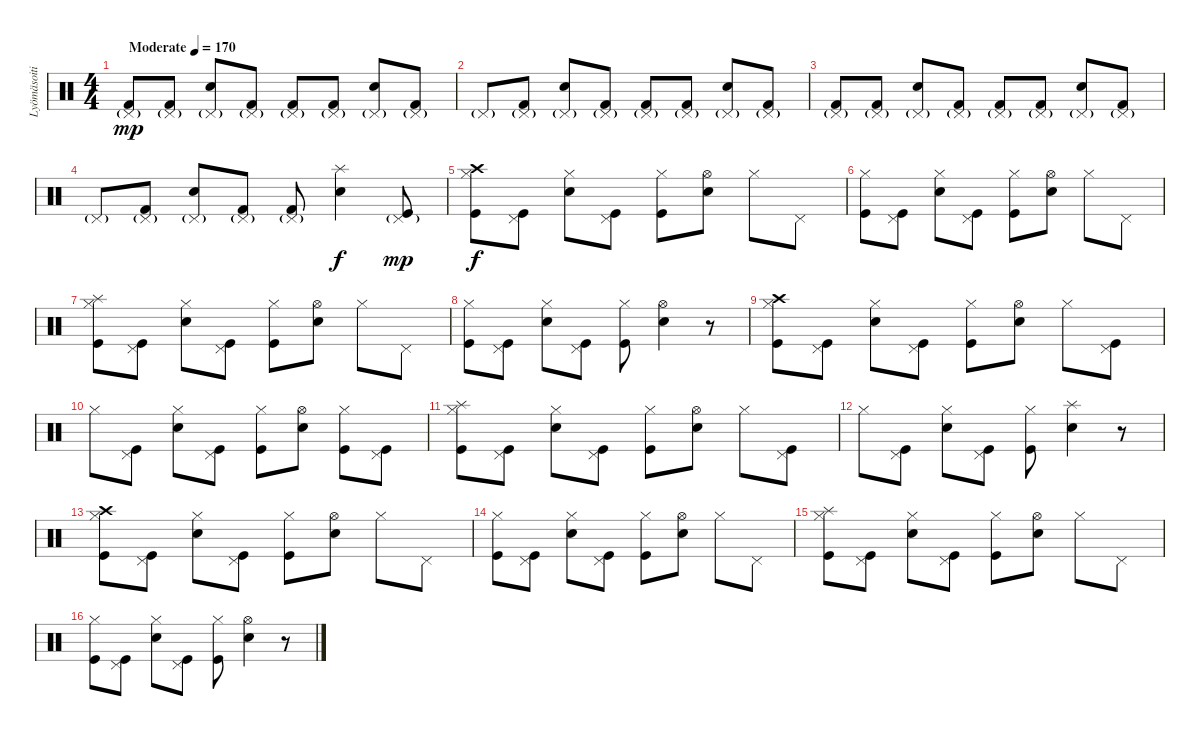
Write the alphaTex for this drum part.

\track ("Lyömäsoitin" "Lyömäsoiti") {instrument percussion}
\staff {score}
\articulation defaults
\ts (4 4)
\tempo (170 "Moderate")
\clef neutral
\ks c
("Pedal Hi-Hat (hit)"{g} "Kick (hit) 2").8{dy mp volume 10} ("Pedal Hi-Hat (hit)"{g} "Kick (hit) 2").8 ("Pedal Hi-Hat (hit)"{g} "Snare (hit) 2").8 ("Pedal Hi-Hat (hit)"{g} "Kick (hit) 2").8 ("Pedal Hi-Hat (hit)"{g} "Kick (hit) 2").8 ("Pedal Hi-Hat (hit)"{g} "Kick (hit) 2").8 ("Pedal Hi-Hat (hit)"{g} "Snare (hit) 2").8 ("Pedal Hi-Hat (hit)"{g} "Kick (hit) 2").8 |
"Pedal Hi-Hat (hit)"{g}.8 ("Pedal Hi-Hat (hit)"{g} "Kick (hit) 2").8 ("Pedal Hi-Hat (hit)"{g} "Snare (hit) 2").8 ("Pedal Hi-Hat (hit)"{g} "Kick (hit) 2").8 ("Pedal Hi-Hat (hit)"{g} "Kick (hit) 2").8 ("Pedal Hi-Hat (hit)"{g} "Kick (hit) 2").8 ("Pedal Hi-Hat (hit)"{g} "Snare (hit) 2").8 ("Pedal Hi-Hat (hit)"{g} "Kick (hit) 2").8 |
("Pedal Hi-Hat (hit)"{g} "Kick (hit) 2").8 ("Pedal Hi-Hat (hit)"{g} "Kick (hit) 2").8 ("Pedal Hi-Hat (hit)"{g} "Snare (hit) 2").8 ("Pedal Hi-Hat (hit)"{g} "Kick (hit) 2").8 ("Pedal Hi-Hat (hit)"{g} "Kick (hit) 2").8 ("Pedal Hi-Hat (hit)"{g} "Kick (hit) 2").8 ("Pedal Hi-Hat (hit)"{g} "Snare (hit) 2").8 ("Pedal Hi-Hat (hit)"{g} "Kick (hit) 2").8 |
"Pedal Hi-Hat (hit)"{g}.8 ("Pedal Hi-Hat (hit)"{g} "Kick (hit) 2").8 ("Pedal Hi-Hat (hit)"{g} "Snare (hit) 2").8 ("Pedal Hi-Hat (hit)"{g} "Kick (hit) 2").8 ("Pedal Hi-Hat (hit)"{g} "Kick (hit) 2").8{volume 14} ("Splash (hit)" "Snare (hit) 2").4{dy f} ("Pedal Hi-Hat (hit)"{g} "Kick (hit)").8{dy mp} |
("Crash high (hit)" "Hi-Hat (closed)" "Kick (hit)").8{dy f} ("Pedal Hi-Hat (hit)" "Kick (hit)").8 ("Hi-Hat (closed)" "Snare (hit) 2").8 ("Pedal Hi-Hat (hit)" "Kick (hit)").8 ("Hi-Hat (closed)" "Kick (hit)").8 ("Hi-Hat (open)" "Snare (hit) 2").8 "Hi-Hat (closed)".8 "Pedal Hi-Hat (hit)".8 |
("Hi-Hat (closed)" "Kick (hit)").8 ("Pedal Hi-Hat (hit)" "Kick (hit)").8 ("Hi-Hat (closed)" "Snare (hit) 2").8 ("Pedal Hi-Hat (hit)" "Kick (hit)").8 ("Hi-Hat (closed)" "Kick (hit)").8 ("Hi-Hat (open)" "Snare (hit) 2").8 "Hi-Hat (closed)".8 "Pedal Hi-Hat (hit)".8 |
("Splash (hit)" "Hi-Hat (closed)" "Kick (hit)").8 ("Pedal Hi-Hat (hit)" "Kick (hit)").8 ("Hi-Hat (closed)" "Snare (hit) 2").8 ("Pedal Hi-Hat (hit)" "Kick (hit)").8 ("Hi-Hat (closed)" "Kick (hit)").8 ("Hi-Hat (open)" "Snare (hit) 2").8 "Hi-Hat (closed)".8 "Pedal Hi-Hat (hit)".8 |
("Hi-Hat (closed)" "Kick (hit)").8 ("Pedal Hi-Hat (hit)" "Kick (hit)").8 ("Hi-Hat (closed)" "Snare (hit) 2").8 ("Pedal Hi-Hat (hit)" "Kick (hit)").8 ("Hi-Hat (closed)" "Kick (hit)").8 ("Hi-Hat (open)" "Snare (hit) 2").4 r.8 |
("Crash high (hit)" "Hi-Hat (closed)" "Kick (hit)").8 ("Pedal Hi-Hat (hit)" "Kick (hit)").8 ("Hi-Hat (closed)" "Snare (hit) 2").8 ("Pedal Hi-Hat (hit)" "Kick (hit)").8 ("Hi-Hat (closed)" "Kick (hit)").8 ("Hi-Hat (open)" "Snare (hit) 2").8 "Hi-Hat (closed)".8 ("Pedal Hi-Hat (hit)" "Kick (hit)").8 |
"Hi-Hat (closed)".8 ("Pedal Hi-Hat (hit)" "Kick (hit)").8 ("Hi-Hat (closed)" "Snare (hit) 2").8 ("Pedal Hi-Hat (hit)" "Kick (hit)").8 ("Hi-Hat (closed)" "Kick (hit)").8 ("Hi-Hat (open)" "Snare (hit) 2").8 ("Hi-Hat (closed)" "Kick (hit)").8 ("Pedal Hi-Hat (hit)" "Kick (hit)").8 |
("Splash (hit)" "Hi-Hat (closed)" "Kick (hit)").8 ("Pedal Hi-Hat (hit)" "Kick (hit)").8 ("Hi-Hat (closed)" "Snare (hit) 2").8 ("Pedal Hi-Hat (hit)" "Kick (hit)").8 ("Hi-Hat (closed)" "Kick (hit)").8 ("Hi-Hat (open)" "Snare (hit) 2").8 "Hi-Hat (closed)".8 ("Pedal Hi-Hat (hit)" "Kick (hit)").8 |
"Hi-Hat (closed)".8 ("Pedal Hi-Hat (hit)" "Kick (hit)").8 ("Hi-Hat (closed)" "Snare (hit) 2").8 ("Pedal Hi-Hat (hit)" "Kick (hit)").8 ("Hi-Hat (closed)" "Kick (hit)").8 ("Splash (hit)" "Snare (hit) 2").4 r.8 |
("Crash high (hit)" "Hi-Hat (closed)" "Kick (hit)").8 ("Pedal Hi-Hat (hit)" "Kick (hit)").8 ("Hi-Hat (closed)" "Snare (hit) 2").8 ("Pedal Hi-Hat (hit)" "Kick (hit)").8 ("Hi-Hat (closed)" "Kick (hit)").8 ("Hi-Hat (open)" "Snare (hit) 2").8 "Hi-Hat (closed)".8 "Pedal Hi-Hat (hit)".8 |
("Hi-Hat (closed)" "Kick (hit)").8 ("Pedal Hi-Hat (hit)" "Kick (hit)").8 ("Hi-Hat (closed)" "Snare (hit) 2").8 ("Pedal Hi-Hat (hit)" "Kick (hit)").8 ("Hi-Hat (closed)" "Kick (hit)").8 ("Hi-Hat (open)" "Snare (hit) 2").8 "Hi-Hat (closed)".8 "Pedal Hi-Hat (hit)".8 |
("Splash (hit)" "Hi-Hat (closed)" "Kick (hit)").8 ("Pedal Hi-Hat (hit)" "Kick (hit)").8 ("Hi-Hat (closed)" "Snare (hit) 2").8 ("Pedal Hi-Hat (hit)" "Kick (hit)").8 ("Hi-Hat (closed)" "Kick (hit)").8 ("Hi-Hat (open)" "Snare (hit) 2").8 "Hi-Hat (closed)".8 "Pedal Hi-Hat (hit)".8 |
("Hi-Hat (closed)" "Kick (hit)").8 ("Pedal Hi-Hat (hit)" "Kick (hit)").8 ("Hi-Hat (closed)" "Snare (hit) 2").8 ("Pedal Hi-Hat (hit)" "Kick (hit)").8 ("Hi-Hat (closed)" "Kick (hit)").8 ("Hi-Hat (open)" "Snare (hit) 2").4 r.8
